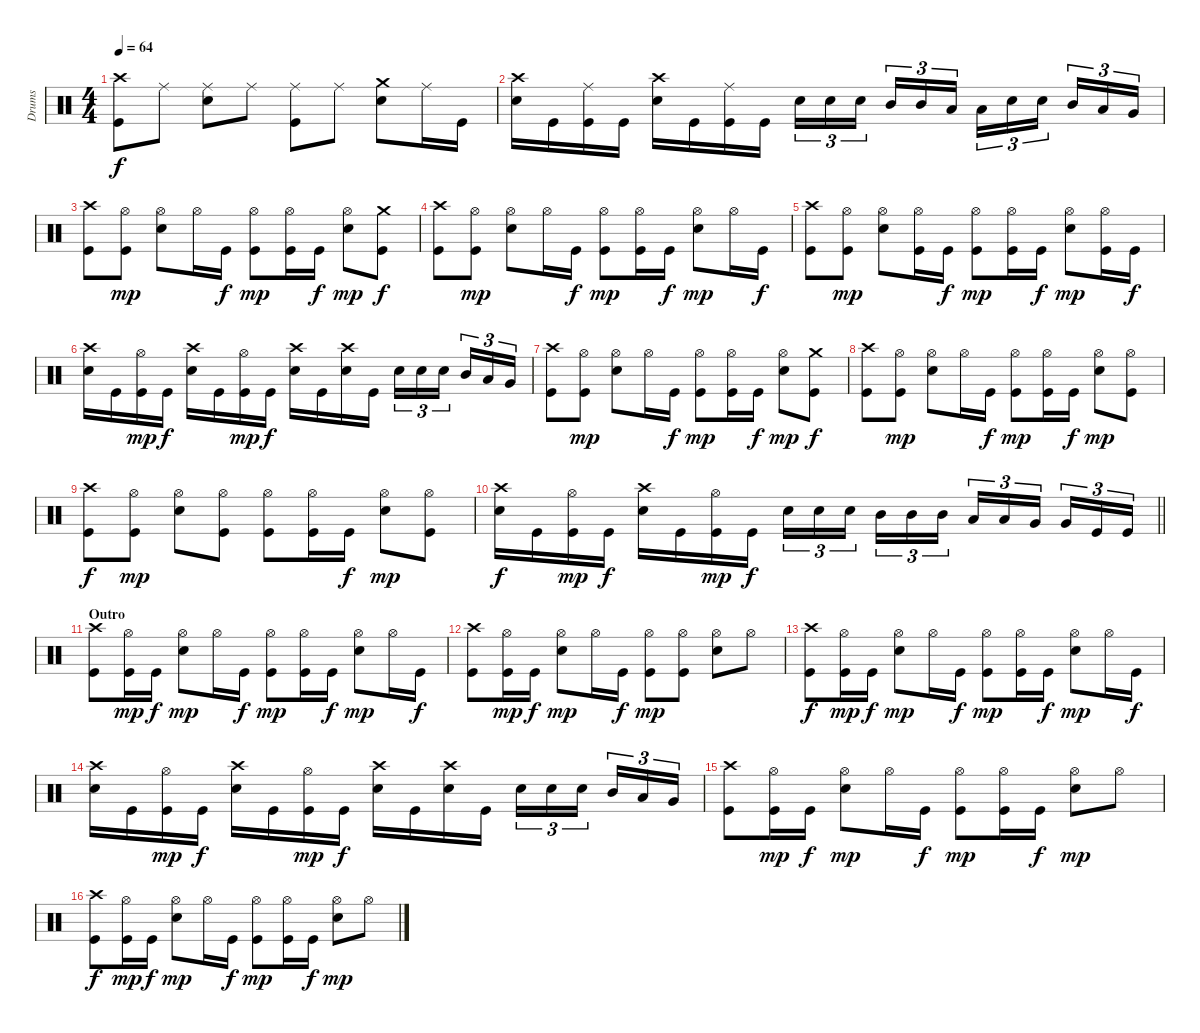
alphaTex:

\track ("Drums" "Drums") {instrument percussion}
\staff {score}
\articulation defaults
\ts (4 4)
\tempo 64
\clef neutral
\ks c
("Crash high (hit)" "Kick (hit)").8{dy f} "Ride (middle)".8 ("Ride (middle)" "Snare (hit) 2").8 "Ride (middle)".8 ("Ride (middle)" "Kick (hit)").8 "Ride (middle)".8 ("Crash medium (hit)" "Snare (hit) 2").8 "Ride (middle)".16 "Kick (hit)".16 |
("Crash high (hit)" "Snare (hit) 2").16 "Kick (hit)".16 ("Ride (middle)" "Kick (hit)").16 "Kick (hit)".16 ("Crash high (hit)" "Snare (hit) 2").16 "Kick (hit)".16 ("Ride (middle)" "Kick (hit)").16 "Kick (hit)".16 "Snare (hit) 2".16{tu (3 2)} "Snare (hit) 2".16{tu (3 2)} "Snare (hit) 2".16{tu (3 2)} "Mid Tom (hit)".16{tu (3 2)} "Mid Tom (hit)".16{tu (3 2)} "Low Tom (hit)".16{tu (3 2)} "Low Tom (hit)".16{tu (3 2)} "Snare (hit) 2".16{tu (3 2)} "Snare (hit) 2".16{tu (3 2)} "Mid Tom (hit)".16{tu (3 2)} "Low Tom (hit)".16{tu (3 2)} "Very Low Tom (hit)".16{tu (3 2)} |
("Crash high (hit)" "Kick (hit)").8 ("Hi-Hat (open)" "Kick (hit)").8{dy mp} ("Hi-Hat (open)" "Snare (hit) 2").8 "Hi-Hat (open)".16 "Kick (hit)".16{dy f} ("Hi-Hat (open)" "Kick (hit)").8{dy mp} ("Hi-Hat (open)" "Kick (hit)").16 "Kick (hit)".16{dy f} ("Hi-Hat (open)" "Snare (hit) 2").8{dy mp} ("Crash medium (hit)" "Kick (hit)").8{dy f} |
("Crash high (hit)" "Kick (hit)").8 ("Hi-Hat (open)" "Kick (hit)").8{dy mp} ("Hi-Hat (open)" "Snare (hit) 2").8 "Hi-Hat (open)".16 "Kick (hit)".16{dy f} ("Hi-Hat (open)" "Kick (hit)").8{dy mp} ("Hi-Hat (open)" "Kick (hit)").16 "Kick (hit)".16{dy f} ("Hi-Hat (open)" "Snare (hit) 2").8{dy mp} "Hi-Hat (open)".16 "Kick (hit)".16{dy f} |
("Crash high (hit)" "Kick (hit)").8 ("Hi-Hat (open)" "Kick (hit)").8{dy mp} ("Hi-Hat (open)" "Snare (hit) 2").8 ("Hi-Hat (open)" "Kick (hit)").16 "Kick (hit)".16{dy f} ("Hi-Hat (open)" "Kick (hit)").8{dy mp} ("Hi-Hat (open)" "Kick (hit)").16 "Kick (hit)".16{dy f} ("Hi-Hat (open)" "Snare (hit) 2").8{dy mp} ("Hi-Hat (open)" "Kick (hit)").16 "Kick (hit)".16{dy f} |
("Crash high (hit)" "Snare (hit) 2").16 "Kick (hit)".16 ("Hi-Hat (open)" "Kick (hit)").16{dy mp} "Kick (hit)".16{dy f} ("Crash high (hit)" "Snare (hit) 2").16 "Kick (hit)".16 ("Hi-Hat (open)" "Kick (hit)").16{dy mp} "Kick (hit)".16{dy f} ("Crash high (hit)" "Snare (hit) 2").16 "Kick (hit)".16 ("Crash high (hit)" "Snare (hit) 2").16 "Kick (hit)".16 "Snare (hit) 2".16{tu (3 2)} "Snare (hit) 2".16{tu (3 2)} "Snare (hit) 2".16{tu (3 2)} "Mid Tom (hit)".16{tu (3 2)} "Low Tom (hit)".16{tu (3 2)} "Very Low Tom (hit)".16{tu (3 2)} |
("Crash high (hit)" "Kick (hit)").8 ("Hi-Hat (open)" "Kick (hit)").8{dy mp} ("Hi-Hat (open)" "Snare (hit) 2").8 "Hi-Hat (open)".16 "Kick (hit)".16{dy f} ("Hi-Hat (open)" "Kick (hit)").8{dy mp} ("Hi-Hat (open)" "Kick (hit)").16 "Kick (hit)".16{dy f} ("Hi-Hat (open)" "Snare (hit) 2").8{dy mp} ("Crash medium (hit)" "Kick (hit)").8{dy f} |
("Crash high (hit)" "Kick (hit)").8 ("Hi-Hat (open)" "Kick (hit)").8{dy mp} ("Hi-Hat (open)" "Snare (hit) 2").8 "Hi-Hat (open)".16 "Kick (hit)".16{dy f} ("Hi-Hat (open)" "Kick (hit)").8{dy mp} ("Hi-Hat (open)" "Kick (hit)").16 "Kick (hit)".16{dy f} ("Hi-Hat (open)" "Snare (hit) 2").8{dy mp} ("Hi-Hat (open)" "Kick (hit)").8 |
("Crash high (hit)" "Kick (hit)").8{dy f} ("Hi-Hat (open)" "Kick (hit)").8{dy mp} ("Hi-Hat (open)" "Snare (hit) 2").8 ("Hi-Hat (open)" "Kick (hit)").8 ("Hi-Hat (open)" "Kick (hit)").8 ("Hi-Hat (open)" "Kick (hit)").16 "Kick (hit)".16{dy f} ("Hi-Hat (open)" "Snare (hit) 2").8{dy mp} ("Hi-Hat (open)" "Kick (hit)").8 |
\barLineRight lightlight
("Crash high (hit)" "Snare (hit) 2").16{dy f} "Kick (hit)".16 ("Hi-Hat (open)" "Kick (hit)").16{dy mp} "Kick (hit)".16{dy f} ("Crash high (hit)" "Snare (hit) 2").16 "Kick (hit)".16 ("Hi-Hat (open)" "Kick (hit)").16{dy mp} "Kick (hit)".16{dy f} "Snare (hit) 2".16{tu (3 2)} "Snare (hit) 2".16{tu (3 2)} "Snare (hit) 2".16{tu (3 2)} "Mid Tom (hit)".16{tu (3 2)} "Mid Tom (hit)".16{tu (3 2)} "Mid Tom (hit)".16{tu (3 2)} "Low Tom (hit)".16{tu (3 2)} "Low Tom (hit)".16{tu (3 2)} "Very Low Tom (hit)".16{tu (3 2)} "Very Low Tom (hit)".16{tu (3 2)} "Kick (hit)".16{tu (3 2)} "Kick (hit)".16{tu (3 2)} |
\section ("" "Outro")
("Crash high (hit)" "Kick (hit)").8 ("Hi-Hat (open)" "Kick (hit)").16{dy mp} "Kick (hit)".16{dy f} ("Hi-Hat (open)" "Snare (hit) 2").8{dy mp} "Hi-Hat (open)".16 "Kick (hit)".16{dy f} ("Hi-Hat (open)" "Kick (hit)").8{dy mp} ("Hi-Hat (open)" "Kick (hit)").16 "Kick (hit)".16{dy f} ("Hi-Hat (open)" "Snare (hit) 2").8{dy mp} "Hi-Hat (open)".16 "Kick (hit)".16{dy f} |
("Crash high (hit)" "Kick (hit)").8 ("Hi-Hat (open)" "Kick (hit)").16{dy mp} "Kick (hit)".16{dy f} ("Hi-Hat (open)" "Snare (hit) 2").8{dy mp} "Hi-Hat (open)".16 "Kick (hit)".16{dy f} ("Hi-Hat (open)" "Kick (hit)").8{dy mp} ("Hi-Hat (open)" "Kick (hit)").8 ("Hi-Hat (open)" "Snare (hit) 2").8 "Hi-Hat (open)".8 |
("Crash high (hit)" "Kick (hit)").8{dy f volume 0} ("Hi-Hat (open)" "Kick (hit)").16{dy mp} "Kick (hit)".16{dy f} ("Hi-Hat (open)" "Snare (hit) 2").8{dy mp} "Hi-Hat (open)".16 "Kick (hit)".16{dy f} ("Hi-Hat (open)" "Kick (hit)").8{dy mp} ("Hi-Hat (open)" "Kick (hit)").16 "Kick (hit)".16{dy f} ("Hi-Hat (open)" "Snare (hit) 2").8{dy mp} "Hi-Hat (open)".16 "Kick (hit)".16{dy f} |
("Crash high (hit)" "Snare (hit) 2").16 "Kick (hit)".16 ("Hi-Hat (open)" "Kick (hit)").16{dy mp} "Kick (hit)".16{dy f} ("Crash high (hit)" "Snare (hit) 2").16 "Kick (hit)".16 ("Hi-Hat (open)" "Kick (hit)").16{dy mp} "Kick (hit)".16{dy f} ("Crash high (hit)" "Snare (hit) 2").16 "Kick (hit)".16 ("Crash high (hit)" "Snare (hit) 2").16 "Kick (hit)".16 "Snare (hit) 2".16{tu (3 2)} "Snare (hit) 2".16{tu (3 2)} "Snare (hit) 2".16{tu (3 2)} "Mid Tom (hit)".16{tu (3 2)} "Low Tom (hit)".16{tu (3 2)} "Very Low Tom (hit)".16{tu (3 2)} |
("Crash high (hit)" "Kick (hit)").8 ("Hi-Hat (open)" "Kick (hit)").16{dy mp} "Kick (hit)".16{dy f} ("Hi-Hat (open)" "Snare (hit) 2").8{dy mp} "Hi-Hat (open)".16 "Kick (hit)".16{dy f} ("Hi-Hat (open)" "Kick (hit)").8{dy mp} ("Hi-Hat (open)" "Kick (hit)").16 "Kick (hit)".16{dy f} ("Hi-Hat (open)" "Snare (hit) 2").8{dy mp} "Hi-Hat (open)".8 |
("Crash high (hit)" "Kick (hit)").8{dy f} ("Hi-Hat (open)" "Kick (hit)").16{dy mp} "Kick (hit)".16{dy f} ("Hi-Hat (open)" "Snare (hit) 2").8{dy mp} "Hi-Hat (open)".16 "Kick (hit)".16{dy f} ("Hi-Hat (open)" "Kick (hit)").8{dy mp} ("Hi-Hat (open)" "Kick (hit)").16 "Kick (hit)".16{dy f} ("Hi-Hat (open)" "Snare (hit) 2").8{dy mp} "Hi-Hat (open)".8
